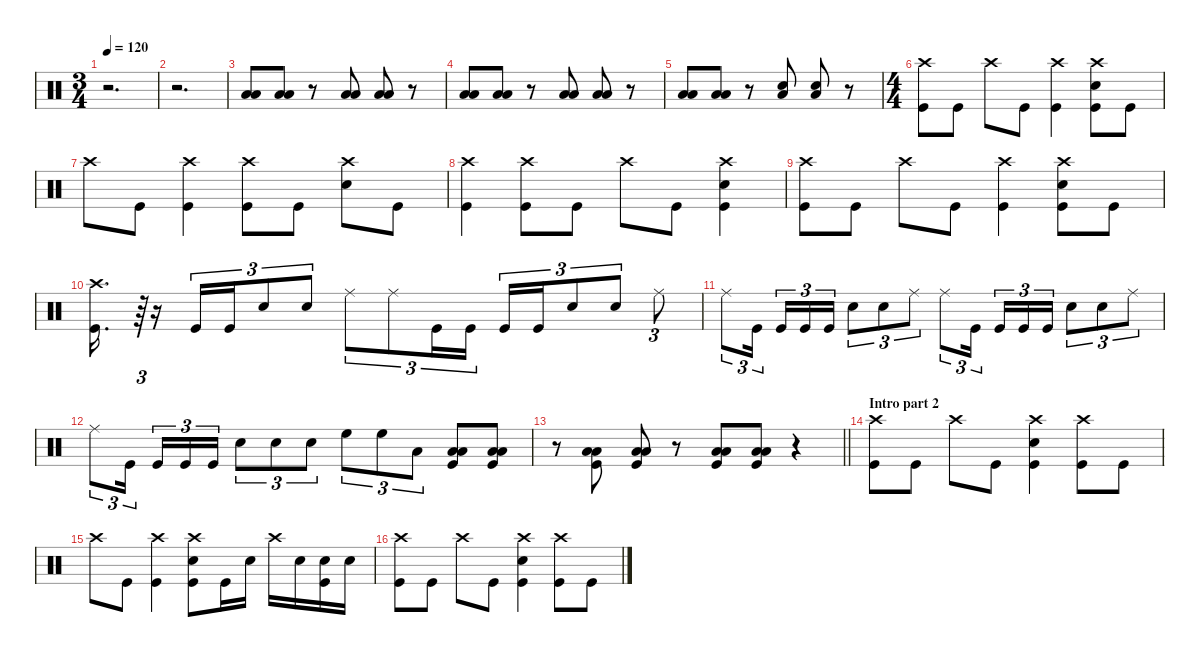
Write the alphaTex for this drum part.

\defaultSystemsLayout 4
\hideDynamics
\bracketExtendMode nobrackets
\singleTrackTrackNamePolicy hidden
\multiTrackTrackNamePolicy hidden
\firstSystemTrackNameMode fullname
\firstSystemTrackNameOrientation horizontal
\otherSystemsTrackNameOrientation horizontal
\track ("Drums" "drm.") {instrument percussion}
\staff {score}
\articulation defaults
\ts (3 4)
\beaming (8 2 2 2 2)
\tempo 120
\clef neutral
\ks c
r.2{d dy mf beam Down} |
r.2{d beam Down} |
("Low Tom (hit)" "Low Floor Tom (hit)").8{beam Up} ("Low Tom (hit)" "Low Floor Tom (hit)").8{beam Up} r.8{beam Up} ("Low Tom (hit)" "Low Floor Tom (hit)").8{beam Up} ("Low Tom (hit)" "Low Floor Tom (hit)").8{beam Up} r.8{beam Up} |
("Low Tom (hit)" "Low Floor Tom (hit)").8{beam Up} ("Low Tom (hit)" "Low Floor Tom (hit)").8{beam Up} r.8{beam Up} ("Low Tom (hit)" "Low Floor Tom (hit)").8{beam Up} ("Low Tom (hit)" "Low Floor Tom (hit)").8{beam Up} r.8{beam Up} |
("Low Tom (hit)" "Low Floor Tom (hit)").8{beam Up} ("Low Tom (hit)" "Low Floor Tom (hit)").8{beam Up} r.8{beam Up} ("Low Floor Tom (hit)" "Snare (hit) 2").8{beam Up} ("Low Floor Tom (hit)" "Snare (hit) 2").8{beam Up} r.8{beam Up} |
\ts (4 4)
\beaming (8 2 2 2 2)
("Kick (hit)" "Crash high (hit)").8{beam Down} "Kick (hit)".8{beam Down} "Crash high (hit)".8{beam Down} "Kick (hit)".8{beam Down} ("Crash high (hit)" "Kick (hit)").4{beam Down} ("Kick (hit)" "Snare (hit) 2" "Crash high (hit)").8{beam Down} "Kick (hit)".8{beam Down} |
"Crash high (hit)".8{beam Down} "Kick (hit)".8{beam Down} ("Crash high (hit)" "Kick (hit)").4{beam Down} ("Crash high (hit)" "Kick (hit)").8{beam Down} "Kick (hit)".8{beam Down} ("Snare (hit) 2" "Crash high (hit)").8{beam Down} "Kick (hit)".8{beam Down} |
("Crash high (hit)" "Kick (hit)").4{beam Down} ("Crash high (hit)" "Kick (hit)").8{beam Down} "Kick (hit)".8{beam Down} "Crash high (hit)".8{beam Down} "Kick (hit)".8{beam Down} ("Snare (hit) 2" "Crash high (hit)" "Kick (hit)").4{beam Down} |
("Crash high (hit)" "Kick (hit)").8{beam Down} "Kick (hit)".8{beam Down} "Crash high (hit)".8{beam Down} "Kick (hit)".8{beam Down} ("Crash high (hit)" "Kick (hit)").4{beam Down} ("Snare (hit) 2" "Crash high (hit)" "Kick (hit)").8{beam Down} "Kick (hit)".8{beam Down} |
("Crash high (hit)" "Kick (hit)").16{d beam Down} r.64{tu (3 2) beam Down} r.16{beam Down} "Kick (hit)".16{tu (3 2) beam Up} "Kick (hit)".16{tu (3 2) beam Up} "Snare (hit) 2".8{tu (3 2) beam Up} "Snare (hit) 2".8{tu (3 2) beam Up} "Ride (middle)".8{tu (3 2) beam Down} "Ride (middle)".8{tu (3 2) beam Down} "Kick (hit)".16{tu (3 2) beam Down} "Kick (hit)".16{tu (3 2) beam Down} "Kick (hit)".16{tu (3 2) beam Up} "Kick (hit)".16{tu (3 2) beam Up} "Snare (hit) 2".8{tu (3 2) beam Up} "Snare (hit) 2".8{tu (3 2) beam Up} "Ride (middle)".8{tu (3 2) beam Down} |
"Ride (middle)".8{tu (3 2) beam Down} "Kick (hit)".16{tu (3 2) beam Down} "Kick (hit)".16{tu (3 2) beam Up} "Kick (hit)".16{tu (3 2) beam Up} "Kick (hit)".16{tu (3 2) beam Up} "Snare (hit) 2".8{tu (3 2) beam Down} "Snare (hit) 2".8{tu (3 2) beam Down} "Ride (middle)".8{tu (3 2) beam Down} "Ride (middle)".8{tu (3 2) beam Down} "Kick (hit)".16{tu (3 2) beam Down} "Kick (hit)".16{tu (3 2) beam Up} "Kick (hit)".16{tu (3 2) beam Up} "Kick (hit)".16{tu (3 2) beam Up} "Snare (hit) 2".8{tu (3 2) beam Down} "Snare (hit) 2".8{tu (3 2) beam Down} "Ride (middle)".8{tu (3 2) beam Down} |
"Ride (middle)".8{tu (3 2) beam Down} "Kick (hit)".16{tu (3 2) beam Down} "Kick (hit)".16{tu (3 2) beam Up} "Kick (hit)".16{tu (3 2) beam Up} "Kick (hit)".16{tu (3 2) beam Up} "Snare (hit) 2".8{tu (3 2) beam Down} "Snare (hit) 2".8{tu (3 2) beam Down} "Snare (hit) 2".8{tu (3 2) beam Down} "High Floor Tom (hit)".8{tu (3 2) beam Down} "High Floor Tom (hit)".8{tu (3 2) beam Down} "Low Tom (hit)".8{tu (3 2) beam Down} ("Kick (hit)" "Low Floor Tom (hit)" "Low Tom (hit)").8{beam Up} ("Kick (hit)" "Low Floor Tom (hit)" "Low Tom (hit)").8{beam Up} |
\barLineRight lightlight
r.8{beam Down} ("Low Floor Tom (hit)" "Low Tom (hit)" "Kick (hit)").8{beam Up} ("Low Floor Tom (hit)" "Low Tom (hit)" "Kick (hit)").8{beam Up} r.8{beam Up} ("Low Floor Tom (hit)" "Low Tom (hit)" "Kick (hit)").8{beam Up} ("Low Floor Tom (hit)" "Low Tom (hit)" "Kick (hit)").8{beam Up} r.4{beam Up} |
\section ("" "Intro part 2")
("Crash high (hit)" "Kick (hit)").8{beam Down} "Kick (hit)".8{beam Down} "Crash high (hit)".8{beam Down} "Kick (hit)".8{beam Down} ("Snare (hit) 2" "Crash high (hit)" "Kick (hit)").4{beam Down} ("Crash high (hit)" "Kick (hit)").8{beam Down} "Kick (hit)".8{beam Down} |
"Crash high (hit)".8{beam Down} "Kick (hit)".8{beam Down} ("Crash high (hit)" "Kick (hit)").4{beam Down} ("Snare (hit) 2" "Crash high (hit)" "Kick (hit)").8{beam Down} "Kick (hit)".16{beam Down} "Snare (hit) 2".16{beam Down} "Crash high (hit)".16{beam Down} "Snare (hit) 2".16{beam Down} ("Kick (hit)" "Snare (hit) 2").16{beam Down} "Snare (hit) 2".16{beam Down} |
("Kick (hit)" "Crash high (hit)").8{beam Down} "Kick (hit)".8{beam Down} "Crash high (hit)".8{beam Down} "Kick (hit)".8{beam Down} ("Kick (hit)" "Snare (hit) 2" "Crash high (hit)").4{beam Down} ("Kick (hit)" "Crash high (hit)").8{beam Down} "Kick (hit)".8{beam Down}
